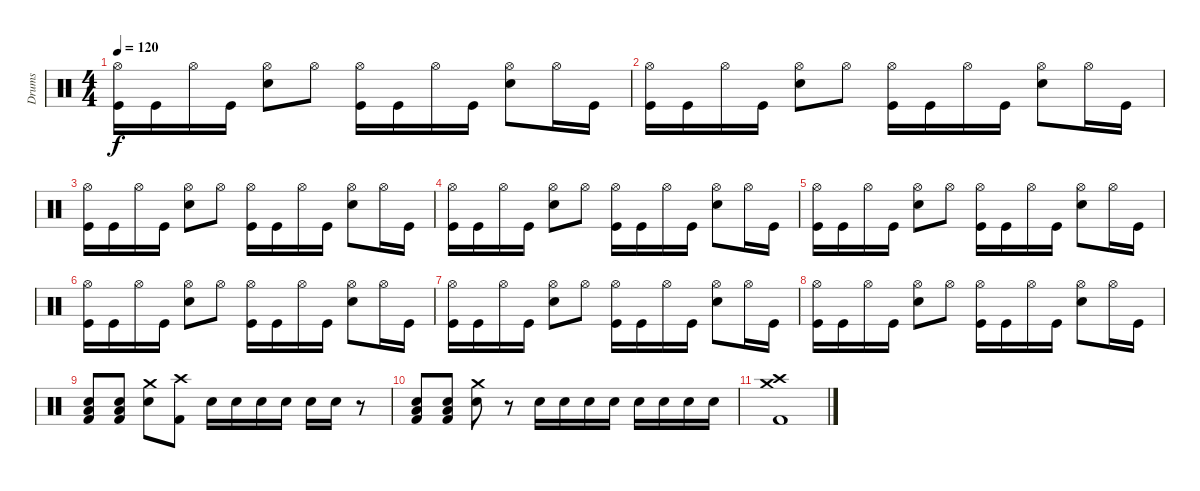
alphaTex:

\track ("Drums" "Drums") {instrument percussion}
\staff {score}
\articulation defaults
\ts (4 4)
\tempo 120
\clef neutral
\ks c
("Hi-Hat (open)" "Kick (hit)").16{dy f} "Kick (hit)".16 "Hi-Hat (open)".16 "Kick (hit)".16 ("Hi-Hat (open)" "Electric Snare (hit)").8 "Hi-Hat (open)".8 ("Hi-Hat (open)" "Kick (hit)").16 "Kick (hit)".16 "Hi-Hat (open)".16 "Kick (hit)".16 ("Hi-Hat (open)" "Electric Snare (hit)").8 "Hi-Hat (open)".16 "Kick (hit)".16 |
("Hi-Hat (open)" "Kick (hit)").16 "Kick (hit)".16 "Hi-Hat (open)".16 "Kick (hit)".16 ("Hi-Hat (open)" "Electric Snare (hit)").8 "Hi-Hat (open)".8 ("Hi-Hat (open)" "Kick (hit)").16 "Kick (hit)".16 "Hi-Hat (open)".16 "Kick (hit)".16 ("Hi-Hat (open)" "Electric Snare (hit)").8 "Hi-Hat (open)".16 "Kick (hit)".16 |
("Hi-Hat (open)" "Kick (hit)").16 "Kick (hit)".16 "Hi-Hat (open)".16 "Kick (hit)".16 ("Hi-Hat (open)" "Electric Snare (hit)").8 "Hi-Hat (open)".8 ("Hi-Hat (open)" "Kick (hit)").16 "Kick (hit)".16 "Hi-Hat (open)".16 "Kick (hit)".16 ("Hi-Hat (open)" "Electric Snare (hit)").8 "Hi-Hat (open)".16 "Kick (hit)".16 |
("Hi-Hat (open)" "Kick (hit)").16 "Kick (hit)".16 "Hi-Hat (open)".16 "Kick (hit)".16 ("Hi-Hat (open)" "Electric Snare (hit)").8 "Hi-Hat (open)".8 ("Hi-Hat (open)" "Kick (hit)").16 "Kick (hit)".16 "Hi-Hat (open)".16 "Kick (hit)".16 ("Hi-Hat (open)" "Electric Snare (hit)").8 "Hi-Hat (open)".16 "Kick (hit)".16 |
("Hi-Hat (open)" "Kick (hit)").16 "Kick (hit)".16 "Hi-Hat (open)".16 "Kick (hit)".16 ("Hi-Hat (open)" "Electric Snare (hit)").8 "Hi-Hat (open)".8 ("Hi-Hat (open)" "Kick (hit)").16 "Kick (hit)".16 "Hi-Hat (open)".16 "Kick (hit)".16 ("Hi-Hat (open)" "Electric Snare (hit)").8 "Hi-Hat (open)".16 "Kick (hit)".16 |
("Hi-Hat (open)" "Kick (hit)").16 "Kick (hit)".16 "Hi-Hat (open)".16 "Kick (hit)".16 ("Hi-Hat (open)" "Electric Snare (hit)").8 "Hi-Hat (open)".8 ("Hi-Hat (open)" "Kick (hit)").16 "Kick (hit)".16 "Hi-Hat (open)".16 "Kick (hit)".16 ("Hi-Hat (open)" "Electric Snare (hit)").8 "Hi-Hat (open)".16 "Kick (hit)".16 |
("Hi-Hat (open)" "Kick (hit)").16 "Kick (hit)".16 "Hi-Hat (open)".16 "Kick (hit)".16 ("Hi-Hat (open)" "Electric Snare (hit)").8 "Hi-Hat (open)".8 ("Hi-Hat (open)" "Kick (hit)").16 "Kick (hit)".16 "Hi-Hat (open)".16 "Kick (hit)".16 ("Hi-Hat (open)" "Electric Snare (hit)").8 "Hi-Hat (open)".16 "Kick (hit)".16 |
("Hi-Hat (open)" "Kick (hit)").16 "Kick (hit)".16 "Hi-Hat (open)".16 "Kick (hit)".16 ("Hi-Hat (open)" "Electric Snare (hit)").8 "Hi-Hat (open)".8 ("Hi-Hat (open)" "Kick (hit)").16 "Kick (hit)".16 "Hi-Hat (open)".16 "Kick (hit)".16 ("Hi-Hat (open)" "Electric Snare (hit)").8 "Hi-Hat (open)".16 "Kick (hit)".16 |
("Electric Snare (hit)" "Low Floor Tom (hit)" "Kick (hit) 2").8 ("Electric Snare (hit)" "Low Floor Tom (hit)" "Kick (hit) 2").8 ("Crash medium (hit)" "Electric Snare (hit)").8 ("Crash high (hit)" "Kick (hit) 2").8 "Electric Snare (hit)".16 "Electric Snare (hit)".16 "Electric Snare (hit)".16 "Electric Snare (hit)".16 "Electric Snare (hit)".16 "Electric Snare (hit)".16 r.8 |
("Electric Snare (hit)" "Low Floor Tom (hit)" "Kick (hit) 2").8 ("Electric Snare (hit)" "Low Floor Tom (hit)" "Kick (hit) 2").8 ("Crash medium (hit)" "Electric Snare (hit)").8 r.8 "Electric Snare (hit)".16 "Electric Snare (hit)".16 "Electric Snare (hit)".16 "Electric Snare (hit)".16 "Electric Snare (hit)".16 "Electric Snare (hit)".16 "Electric Snare (hit)".16 "Electric Snare (hit)".16 |
("Crash medium (hit)" "Crash high (hit)" "Kick (hit) 2").1
